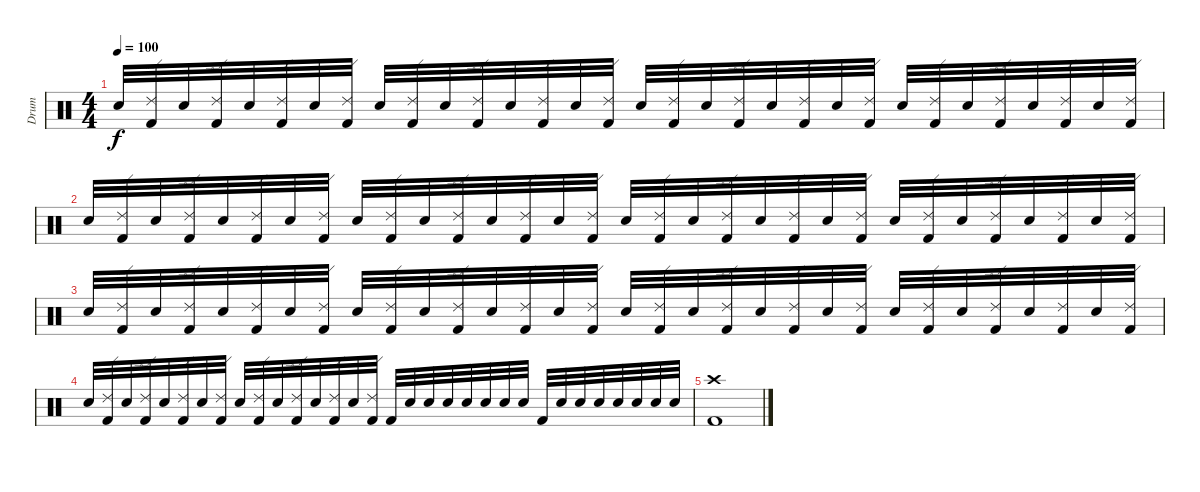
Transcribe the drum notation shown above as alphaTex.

\track ("Drum" "Drum") {instrument percussion}
\staff {score}
\articulation defaults
\ts (4 4)
\tempo 100
\clef neutral
\ks c "Electric Snare (hit)".32{dy f}
("Ride (edge) 2" "Kick (hit) 2").32 "Electric Snare (hit)".32 ("Ride (edge) 2" "Kick (hit) 2").32 "Electric Snare (hit)".32 ("Ride (edge) 2" "Kick (hit) 2").32 "Electric Snare (hit)".32 ("Ride (edge) 2" "Kick (hit) 2").32 "Electric Snare (hit)".32 ("Ride (edge) 2" "Kick (hit) 2").32 "Electric Snare (hit)".32 ("Ride (edge) 2" "Kick (hit) 2").32 "Electric Snare (hit)".32 ("Ride (edge) 2" "Kick (hit) 2").32 "Electric Snare (hit)".32 ("Ride (edge) 2" "Kick (hit) 2").32 "Electric Snare (hit)".32 ("Ride (edge) 2" "Kick (hit) 2").32 "Electric Snare (hit)".32 ("Ride (edge) 2" "Kick (hit) 2").32 "Electric Snare (hit)".32 ("Ride (edge) 2" "Kick (hit) 2").32 "Electric Snare (hit)".32 ("Ride (edge) 2" "Kick (hit) 2").32 "Electric Snare (hit)".32 ("Ride (edge) 2" "Kick (hit) 2").32 "Electric Snare (hit)".32 ("Ride (edge) 2" "Kick (hit) 2").32 "Electric Snare (hit)".32 ("Ride (edge) 2" "Kick (hit) 2").32 "Electric Snare (hit)".32 ("Ride (edge) 2" "Kick (hit) 2").32 |
"Electric Snare (hit)".32 ("Ride (edge) 2" "Kick (hit) 2").32 "Electric Snare (hit)".32 ("Ride (edge) 2" "Kick (hit) 2").32 "Electric Snare (hit)".32 ("Ride (edge) 2" "Kick (hit) 2").32 "Electric Snare (hit)".32 ("Ride (edge) 2" "Kick (hit) 2").32 "Electric Snare (hit)".32 ("Ride (edge) 2" "Kick (hit) 2").32 "Electric Snare (hit)".32 ("Ride (edge) 2" "Kick (hit) 2").32 "Electric Snare (hit)".32 ("Ride (edge) 2" "Kick (hit) 2").32 "Electric Snare (hit)".32 ("Ride (edge) 2" "Kick (hit) 2").32 "Electric Snare (hit)".32 ("Ride (edge) 2" "Kick (hit) 2").32 "Electric Snare (hit)".32 ("Ride (edge) 2" "Kick (hit) 2").32 "Electric Snare (hit)".32 ("Ride (edge) 2" "Kick (hit) 2").32 "Electric Snare (hit)".32 ("Ride (edge) 2" "Kick (hit) 2").32 "Electric Snare (hit)".32 ("Ride (edge) 2" "Kick (hit) 2").32 "Electric Snare (hit)".32 ("Ride (edge) 2" "Kick (hit) 2").32 "Electric Snare (hit)".32 ("Ride (edge) 2" "Kick (hit) 2").32 "Electric Snare (hit)".32 ("Ride (edge) 2" "Kick (hit) 2").32 |
"Electric Snare (hit)".32 ("Ride (edge) 2" "Kick (hit) 2").32 "Electric Snare (hit)".32 ("Ride (edge) 2" "Kick (hit) 2").32 "Electric Snare (hit)".32 ("Ride (edge) 2" "Kick (hit) 2").32 "Electric Snare (hit)".32 ("Ride (edge) 2" "Kick (hit) 2").32 "Electric Snare (hit)".32 ("Ride (edge) 2" "Kick (hit) 2").32 "Electric Snare (hit)".32 ("Ride (edge) 2" "Kick (hit) 2").32 "Electric Snare (hit)".32 ("Ride (edge) 2" "Kick (hit) 2").32 "Electric Snare (hit)".32 ("Ride (edge) 2" "Kick (hit) 2").32 "Electric Snare (hit)".32 ("Ride (edge) 2" "Kick (hit) 2").32 "Electric Snare (hit)".32 ("Ride (edge) 2" "Kick (hit) 2").32 "Electric Snare (hit)".32 ("Ride (edge) 2" "Kick (hit) 2").32 "Electric Snare (hit)".32 ("Ride (edge) 2" "Kick (hit) 2").32 "Electric Snare (hit)".32 ("Ride (edge) 2" "Kick (hit) 2").32 "Electric Snare (hit)".32 ("Ride (edge) 2" "Kick (hit) 2").32 "Electric Snare (hit)".32 ("Ride (edge) 2" "Kick (hit) 2").32 "Electric Snare (hit)".32 ("Ride (edge) 2" "Kick (hit) 2").32 |
"Electric Snare (hit)".32 ("Ride (edge) 2" "Kick (hit) 2").32 "Electric Snare (hit)".32 ("Ride (edge) 2" "Kick (hit) 2").32 "Electric Snare (hit)".32 ("Ride (edge) 2" "Kick (hit) 2").32 "Electric Snare (hit)".32 ("Ride (edge) 2" "Kick (hit) 2").32 "Electric Snare (hit)".32 ("Ride (edge) 2" "Kick (hit) 2").32 "Electric Snare (hit)".32 ("Ride (edge) 2" "Kick (hit) 2").32 "Electric Snare (hit)".32 ("Ride (edge) 2" "Kick (hit) 2").32 "Electric Snare (hit)".32 ("Ride (edge) 2" "Kick (hit) 2").32 "Kick (hit) 2".32 "Electric Snare (hit)".32 "Electric Snare (hit)".32 "Electric Snare (hit)".32 "Electric Snare (hit)".32 "Electric Snare (hit)".32 "Electric Snare (hit)".32 "Electric Snare (hit)".32 "Kick (hit) 2".32 "Electric Snare (hit)".32 "Electric Snare (hit)".32 "Electric Snare (hit)".32 "Electric Snare (hit)".32 "Electric Snare (hit)".32 "Electric Snare (hit)".32 "Electric Snare (hit)".32 |
("Crash high (hit)" "Kick (hit) 2").1
